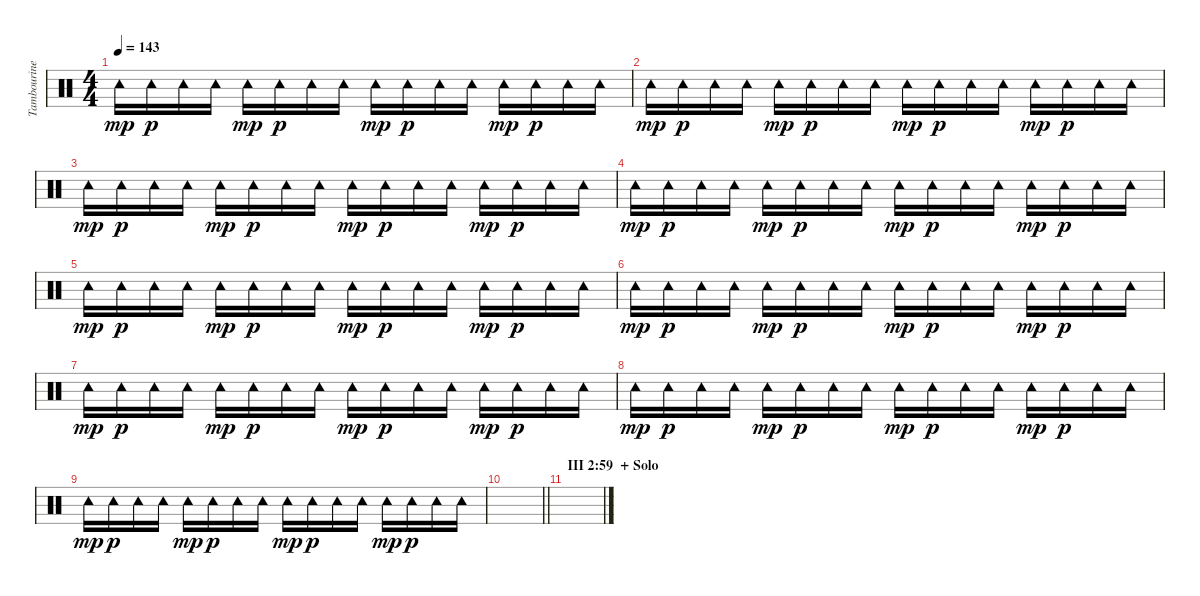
\track ("Tambourine ( I Verse + IV Solo)" "Tambourine") {instrument percussion}
\staff {score}
\articulation defaults
\ts (4 4)
\tempo 143
\clef neutral
\ks c "Tambourine (hit)".16{dy mp} "Tambourine (hit)".16{dy p} "Tambourine (hit)".16 "Tambourine (hit)".16 "Tambourine (hit)".16{dy mp} "Tambourine (hit)".16{dy p} "Tambourine (hit)".16 "Tambourine (hit)".16 "Tambourine (hit)".16{dy mp} "Tambourine (hit)".16{dy p} "Tambourine (hit)".16 "Tambourine (hit)".16 "Tambourine (hit)".16{dy mp} "Tambourine (hit)".16{dy p} "Tambourine (hit)".16 "Tambourine (hit)".16
|
"Tambourine (hit)".16{dy mp} "Tambourine (hit)".16{dy p} "Tambourine (hit)".16 "Tambourine (hit)".16 "Tambourine (hit)".16{dy mp} "Tambourine (hit)".16{dy p} "Tambourine (hit)".16 "Tambourine (hit)".16 "Tambourine (hit)".16{dy mp} "Tambourine (hit)".16{dy p} "Tambourine (hit)".16 "Tambourine (hit)".16 "Tambourine (hit)".16{dy mp} "Tambourine (hit)".16{dy p} "Tambourine (hit)".16 "Tambourine (hit)".16 |
"Tambourine (hit)".16{dy mp} "Tambourine (hit)".16{dy p} "Tambourine (hit)".16 "Tambourine (hit)".16 "Tambourine (hit)".16{dy mp} "Tambourine (hit)".16{dy p} "Tambourine (hit)".16 "Tambourine (hit)".16 "Tambourine (hit)".16{dy mp} "Tambourine (hit)".16{dy p} "Tambourine (hit)".16 "Tambourine (hit)".16 "Tambourine (hit)".16{dy mp} "Tambourine (hit)".16{dy p} "Tambourine (hit)".16 "Tambourine (hit)".16 |
"Tambourine (hit)".16{dy mp} "Tambourine (hit)".16{dy p} "Tambourine (hit)".16 "Tambourine (hit)".16 "Tambourine (hit)".16{dy mp} "Tambourine (hit)".16{dy p} "Tambourine (hit)".16 "Tambourine (hit)".16 "Tambourine (hit)".16{dy mp} "Tambourine (hit)".16{dy p} "Tambourine (hit)".16 "Tambourine (hit)".16 "Tambourine (hit)".16{dy mp} "Tambourine (hit)".16{dy p} "Tambourine (hit)".16 "Tambourine (hit)".16 |
"Tambourine (hit)".16{dy mp} "Tambourine (hit)".16{dy p} "Tambourine (hit)".16 "Tambourine (hit)".16 "Tambourine (hit)".16{dy mp} "Tambourine (hit)".16{dy p} "Tambourine (hit)".16 "Tambourine (hit)".16 "Tambourine (hit)".16{dy mp} "Tambourine (hit)".16{dy p} "Tambourine (hit)".16 "Tambourine (hit)".16 "Tambourine (hit)".16{dy mp} "Tambourine (hit)".16{dy p} "Tambourine (hit)".16 "Tambourine (hit)".16 |
"Tambourine (hit)".16{dy mp} "Tambourine (hit)".16{dy p} "Tambourine (hit)".16 "Tambourine (hit)".16 "Tambourine (hit)".16{dy mp} "Tambourine (hit)".16{dy p} "Tambourine (hit)".16 "Tambourine (hit)".16 "Tambourine (hit)".16{dy mp} "Tambourine (hit)".16{dy p} "Tambourine (hit)".16 "Tambourine (hit)".16 "Tambourine (hit)".16{dy mp} "Tambourine (hit)".16{dy p} "Tambourine (hit)".16 "Tambourine (hit)".16 |
"Tambourine (hit)".16{dy mp} "Tambourine (hit)".16{dy p} "Tambourine (hit)".16 "Tambourine (hit)".16 "Tambourine (hit)".16{dy mp} "Tambourine (hit)".16{dy p} "Tambourine (hit)".16 "Tambourine (hit)".16 "Tambourine (hit)".16{dy mp} "Tambourine (hit)".16{dy p} "Tambourine (hit)".16 "Tambourine (hit)".16 "Tambourine (hit)".16{dy mp} "Tambourine (hit)".16{dy p} "Tambourine (hit)".16 "Tambourine (hit)".16 |
"Tambourine (hit)".16{dy mp} "Tambourine (hit)".16{dy p} "Tambourine (hit)".16 "Tambourine (hit)".16 "Tambourine (hit)".16{dy mp} "Tambourine (hit)".16{dy p} "Tambourine (hit)".16 "Tambourine (hit)".16 "Tambourine (hit)".16{dy mp} "Tambourine (hit)".16{dy p} "Tambourine (hit)".16 "Tambourine (hit)".16 "Tambourine (hit)".16{dy mp} "Tambourine (hit)".16{dy p} "Tambourine (hit)".16 "Tambourine (hit)".16 |
"Tambourine (hit)".16{dy mp} "Tambourine (hit)".16{dy p} "Tambourine (hit)".16 "Tambourine (hit)".16 "Tambourine (hit)".16{dy mp} "Tambourine (hit)".16{dy p} "Tambourine (hit)".16 "Tambourine (hit)".16 "Tambourine (hit)".16{dy mp} "Tambourine (hit)".16{dy p} "Tambourine (hit)".16 "Tambourine (hit)".16 "Tambourine (hit)".16{dy mp} "Tambourine (hit)".16{dy p} "Tambourine (hit)".16 "Tambourine (hit)".16 |
\barLineRight lightlight
|
\section ("" "III 2:59  + Solo")
